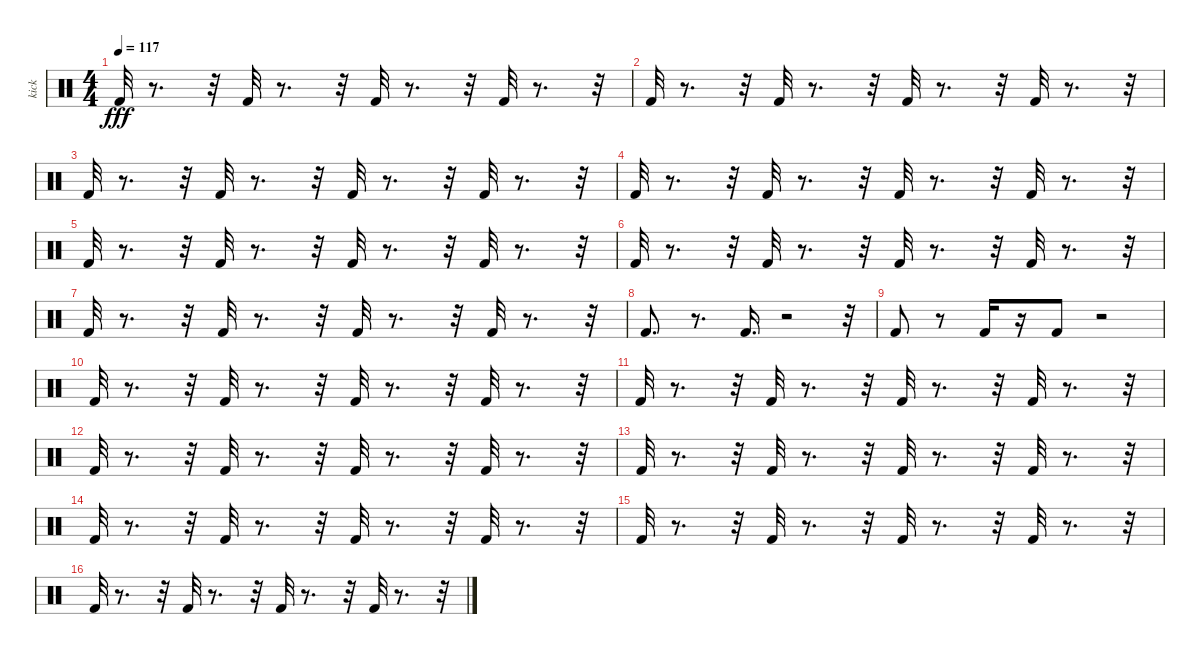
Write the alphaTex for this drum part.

\track ("kick" "kick") {instrument percussion}
\staff {score}
\articulation defaults
\ts (4 4)
\tempo 117
\clef neutral
\ks c "Kick (hit) 2".32{dy fff}
r.8{d} r.32 "Kick (hit) 2".32 r.8{d} r.32 "Kick (hit) 2".32 r.8{d} r.32 "Kick (hit) 2".32 r.8{d} r.32 |
"Kick (hit) 2".32 r.8{d} r.32 "Kick (hit) 2".32 r.8{d} r.32 "Kick (hit) 2".32 r.8{d} r.32 "Kick (hit) 2".32 r.8{d} r.32 |
"Kick (hit) 2".32 r.8{d} r.32 "Kick (hit) 2".32 r.8{d} r.32 "Kick (hit) 2".32 r.8{d} r.32 "Kick (hit) 2".32 r.8{d} r.32 |
"Kick (hit) 2".32 r.8{d} r.32 "Kick (hit) 2".32 r.8{d} r.32 "Kick (hit) 2".32 r.8{d} r.32 "Kick (hit) 2".32 r.8{d} r.32 |
"Kick (hit) 2".32 r.8{d} r.32 "Kick (hit) 2".32 r.8{d} r.32 "Kick (hit) 2".32 r.8{d} r.32 "Kick (hit) 2".32 r.8{d} r.32 |
"Kick (hit) 2".32 r.8{d} r.32 "Kick (hit) 2".32 r.8{d} r.32 "Kick (hit) 2".32 r.8{d} r.32 "Kick (hit) 2".32 r.8{d} r.32 |
"Kick (hit) 2".32 r.8{d} r.32 "Kick (hit) 2".32 r.8{d} r.32 "Kick (hit) 2".32 r.8{d} r.32 "Kick (hit) 2".32 r.8{d} r.32 |
"Kick (hit) 2".8{d} r.8{d} "Kick (hit) 2".16{d} r.2 r.32 |
"Kick (hit) 2".8 r.8 "Kick (hit) 2".16 r.16 "Kick (hit) 2".8 r.2 |
"Kick (hit) 2".32 r.8{d} r.32 "Kick (hit) 2".32 r.8{d} r.32 "Kick (hit) 2".32 r.8{d} r.32 "Kick (hit) 2".32 r.8{d} r.32 |
"Kick (hit) 2".32 r.8{d} r.32 "Kick (hit) 2".32 r.8{d} r.32 "Kick (hit) 2".32 r.8{d} r.32 "Kick (hit) 2".32 r.8{d} r.32 |
"Kick (hit) 2".32 r.8{d} r.32 "Kick (hit) 2".32 r.8{d} r.32 "Kick (hit) 2".32 r.8{d} r.32 "Kick (hit) 2".32 r.8{d} r.32 |
"Kick (hit) 2".32 r.8{d} r.32 "Kick (hit) 2".32 r.8{d} r.32 "Kick (hit) 2".32 r.8{d} r.32 "Kick (hit) 2".32 r.8{d} r.32 |
"Kick (hit) 2".32 r.8{d} r.32 "Kick (hit) 2".32 r.8{d} r.32 "Kick (hit) 2".32 r.8{d} r.32 "Kick (hit) 2".32 r.8{d} r.32 |
"Kick (hit) 2".32 r.8{d} r.32 "Kick (hit) 2".32 r.8{d} r.32 "Kick (hit) 2".32 r.8{d} r.32 "Kick (hit) 2".32 r.8{d} r.32 |
"Kick (hit) 2".32 r.8{d} r.32 "Kick (hit) 2".32 r.8{d} r.32 "Kick (hit) 2".32 r.8{d} r.32 "Kick (hit) 2".32 r.8{d} r.32
